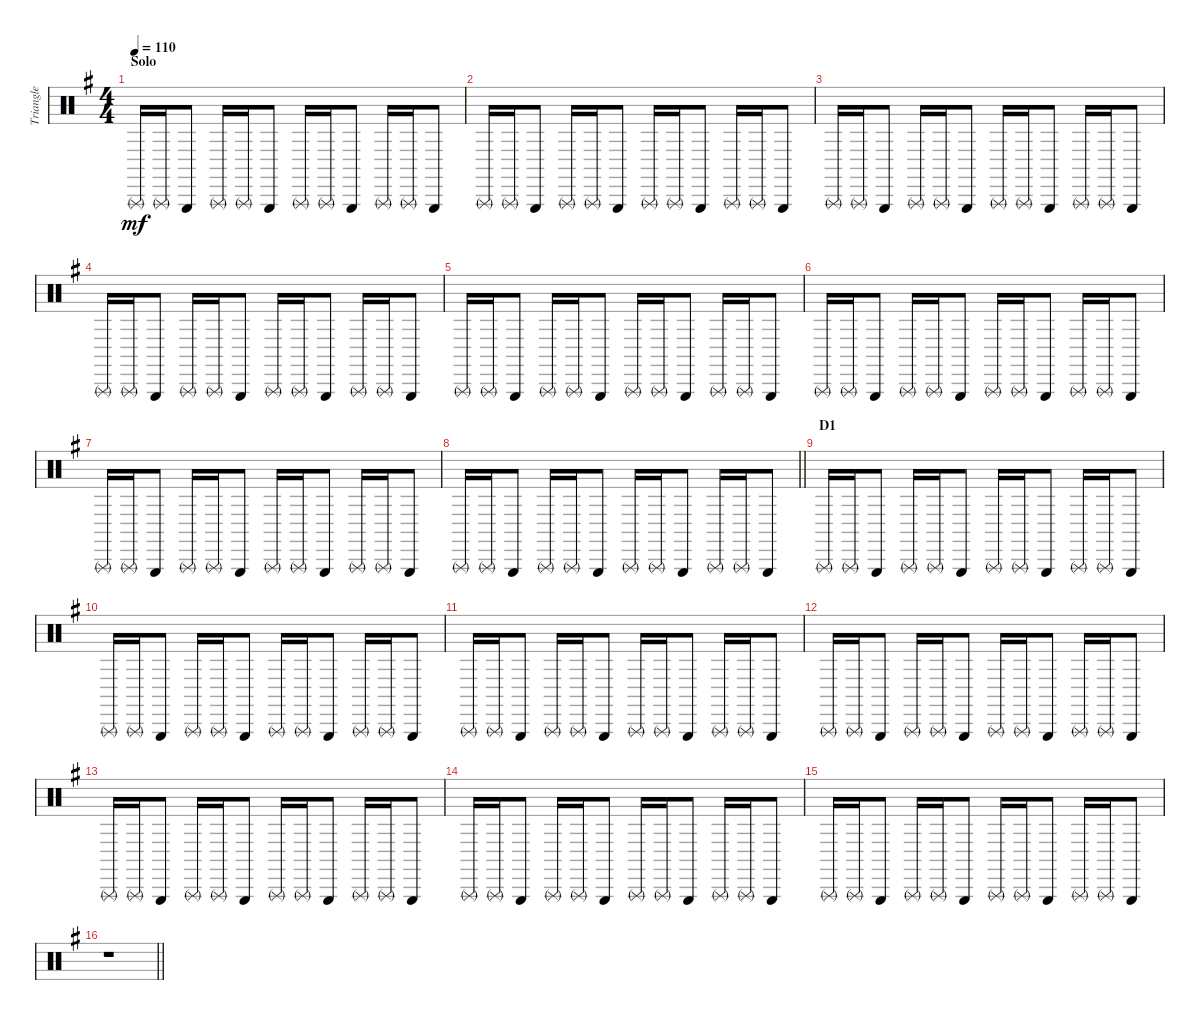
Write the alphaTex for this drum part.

\track ("Triangle" "Triangle") {instrument percussion}
\staff {score}
\articulation defaults
\ts (4 4)
\section ("" "Solo")
\tempo 110
\clef neutral
\ks g "Triangle (rnute)".16{dy mf} "Triangle (rnute)".16 "Triangle (hit)".8 "Triangle (rnute)".16 "Triangle (rnute)".16 "Triangle (hit)".8 "Triangle (rnute)".16 "Triangle (rnute)".16 "Triangle (hit)".8 "Triangle (rnute)".16 "Triangle (rnute)".16 "Triangle (hit)".8
|
"Triangle (rnute)".16 "Triangle (rnute)".16 "Triangle (hit)".8 "Triangle (rnute)".16 "Triangle (rnute)".16 "Triangle (hit)".8 "Triangle (rnute)".16 "Triangle (rnute)".16 "Triangle (hit)".8 "Triangle (rnute)".16 "Triangle (rnute)".16 "Triangle (hit)".8 |
"Triangle (rnute)".16 "Triangle (rnute)".16 "Triangle (hit)".8 "Triangle (rnute)".16 "Triangle (rnute)".16 "Triangle (hit)".8 "Triangle (rnute)".16 "Triangle (rnute)".16 "Triangle (hit)".8 "Triangle (rnute)".16 "Triangle (rnute)".16 "Triangle (hit)".8 |
"Triangle (rnute)".16 "Triangle (rnute)".16 "Triangle (hit)".8 "Triangle (rnute)".16 "Triangle (rnute)".16 "Triangle (hit)".8 "Triangle (rnute)".16 "Triangle (rnute)".16 "Triangle (hit)".8 "Triangle (rnute)".16 "Triangle (rnute)".16 "Triangle (hit)".8 |
"Triangle (rnute)".16 "Triangle (rnute)".16 "Triangle (hit)".8 "Triangle (rnute)".16 "Triangle (rnute)".16 "Triangle (hit)".8 "Triangle (rnute)".16 "Triangle (rnute)".16 "Triangle (hit)".8 "Triangle (rnute)".16 "Triangle (rnute)".16 "Triangle (hit)".8 |
"Triangle (rnute)".16 "Triangle (rnute)".16 "Triangle (hit)".8 "Triangle (rnute)".16 "Triangle (rnute)".16 "Triangle (hit)".8 "Triangle (rnute)".16 "Triangle (rnute)".16 "Triangle (hit)".8 "Triangle (rnute)".16 "Triangle (rnute)".16 "Triangle (hit)".8 |
"Triangle (rnute)".16 "Triangle (rnute)".16 "Triangle (hit)".8 "Triangle (rnute)".16 "Triangle (rnute)".16 "Triangle (hit)".8 "Triangle (rnute)".16 "Triangle (rnute)".16 "Triangle (hit)".8 "Triangle (rnute)".16 "Triangle (rnute)".16 "Triangle (hit)".8 |
\barLineRight lightlight "Triangle (rnute)".16 "Triangle (rnute)".16 "Triangle (hit)".8 "Triangle (rnute)".16 "Triangle (rnute)".16 "Triangle (hit)".8 "Triangle (rnute)".16 "Triangle (rnute)".16 "Triangle (hit)".8 "Triangle (rnute)".16 "Triangle (rnute)".16 "Triangle (hit)".8
|
\section ("" "D1")
"Triangle (rnute)".16 "Triangle (rnute)".16 "Triangle (hit)".8 "Triangle (rnute)".16 "Triangle (rnute)".16 "Triangle (hit)".8 "Triangle (rnute)".16 "Triangle (rnute)".16 "Triangle (hit)".8 "Triangle (rnute)".16 "Triangle (rnute)".16 "Triangle (hit)".8 |
"Triangle (rnute)".16 "Triangle (rnute)".16 "Triangle (hit)".8 "Triangle (rnute)".16 "Triangle (rnute)".16 "Triangle (hit)".8 "Triangle (rnute)".16 "Triangle (rnute)".16 "Triangle (hit)".8 "Triangle (rnute)".16 "Triangle (rnute)".16 "Triangle (hit)".8 |
"Triangle (rnute)".16 "Triangle (rnute)".16 "Triangle (hit)".8 "Triangle (rnute)".16 "Triangle (rnute)".16 "Triangle (hit)".8 "Triangle (rnute)".16 "Triangle (rnute)".16 "Triangle (hit)".8 "Triangle (rnute)".16 "Triangle (rnute)".16 "Triangle (hit)".8 |
"Triangle (rnute)".16 "Triangle (rnute)".16 "Triangle (hit)".8 "Triangle (rnute)".16 "Triangle (rnute)".16 "Triangle (hit)".8 "Triangle (rnute)".16 "Triangle (rnute)".16 "Triangle (hit)".8 "Triangle (rnute)".16 "Triangle (rnute)".16 "Triangle (hit)".8 |
"Triangle (rnute)".16 "Triangle (rnute)".16 "Triangle (hit)".8 "Triangle (rnute)".16 "Triangle (rnute)".16 "Triangle (hit)".8 "Triangle (rnute)".16 "Triangle (rnute)".16 "Triangle (hit)".8 "Triangle (rnute)".16 "Triangle (rnute)".16 "Triangle (hit)".8 |
"Triangle (rnute)".16 "Triangle (rnute)".16 "Triangle (hit)".8 "Triangle (rnute)".16 "Triangle (rnute)".16 "Triangle (hit)".8 "Triangle (rnute)".16 "Triangle (rnute)".16 "Triangle (hit)".8 "Triangle (rnute)".16 "Triangle (rnute)".16 "Triangle (hit)".8 |
"Triangle (rnute)".16 "Triangle (rnute)".16 "Triangle (hit)".8 "Triangle (rnute)".16 "Triangle (rnute)".16 "Triangle (hit)".8 "Triangle (rnute)".16 "Triangle (rnute)".16 "Triangle (hit)".8 "Triangle (rnute)".16 "Triangle (rnute)".16 "Triangle (hit)".8 |
\barLineRight lightlight
r.1
